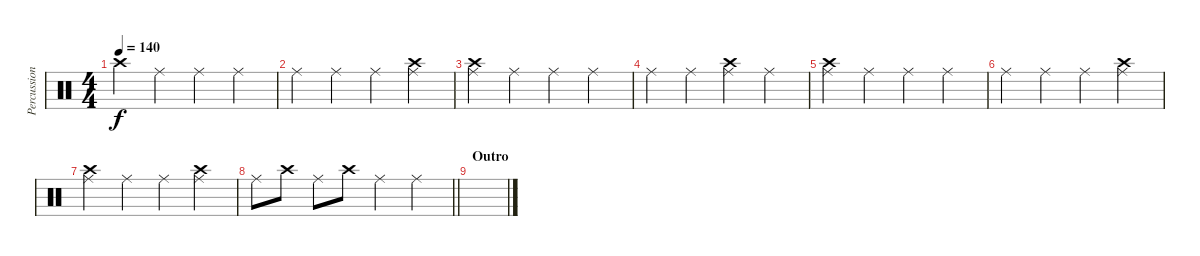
\track ("Percussion" "Percussion") {instrument percussion}
\staff {score}
\articulation defaults
\ts (4 4)
\tempo 140
\clef neutral
\ks c "Crash high (hit)".4{dy f} "Ride (middle)".4 "Ride (middle)".4 "Ride (middle)".4
|
"Ride (middle)".4 "Ride (middle)".4 "Ride (middle)".4 ("Crash high (hit)" "Ride (middle)").4 |
("Crash high (hit)" "Ride (middle)").4 "Ride (middle)".4 "Ride (middle)".4 "Ride (middle)".4 |
"Ride (middle)".4 "Ride (middle)".4 ("Crash high (hit)" "Ride (middle)").4 "Ride (middle)".4 |
("Crash high (hit)" "Ride (middle)").4 "Ride (middle)".4 "Ride (middle)".4 "Ride (middle)".4 |
"Ride (middle)".4 "Ride (middle)".4 "Ride (middle)".4 ("Crash high (hit)" "Ride (middle)").4 |
("Crash high (hit)" "Ride (middle)").4 "Ride (middle)".4 "Ride (middle)".4 ("Crash high (hit)" "Ride (middle)").4 |
\barLineRight lightlight "Ride (middle)".8 "Crash high (hit)".8 "Ride (middle)".8 "Crash high (hit)".8 "Ride (middle)".4 "Ride (middle)".4
|
\section ("" "Outro")
